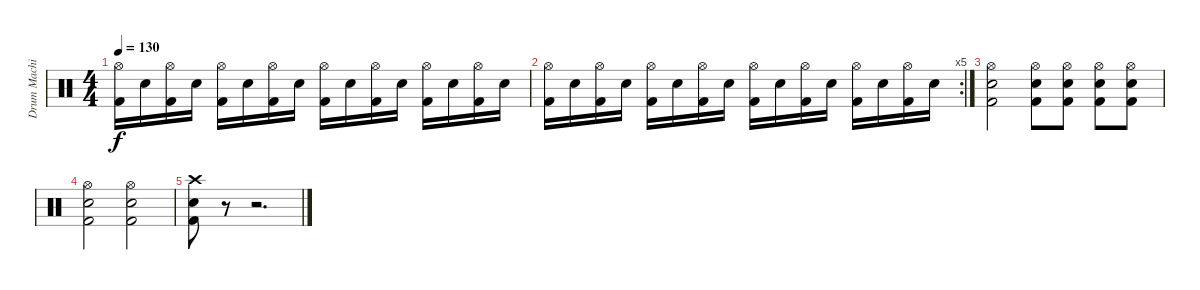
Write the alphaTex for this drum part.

\track ("Drum Machine" "Drum Machi") {instrument percussion}
\staff {score}
\articulation defaults
\ts (4 4)
\tempo 130
\clef neutral
\ks c
("Hi-Hat (open)" "Kick (hit) 2").16{dy f} "Snare (hit) 2".16 ("Hi-Hat (open)" "Kick (hit) 2").16 "Snare (hit) 2".16 ("Hi-Hat (open)" "Kick (hit) 2").16 "Snare (hit) 2".16 ("Hi-Hat (open)" "Kick (hit) 2").16 "Snare (hit) 2".16 ("Hi-Hat (open)" "Kick (hit) 2").16 "Snare (hit) 2".16 ("Hi-Hat (open)" "Kick (hit) 2").16 "Snare (hit) 2".16 ("Hi-Hat (open)" "Kick (hit) 2").16 "Snare (hit) 2".16 ("Hi-Hat (open)" "Kick (hit) 2").16 "Snare (hit) 2".16 |
\rc 5
("Hi-Hat (open)" "Kick (hit) 2").16 "Snare (hit) 2".16 ("Hi-Hat (open)" "Kick (hit) 2").16 "Snare (hit) 2".16 ("Hi-Hat (open)" "Kick (hit) 2").16 "Snare (hit) 2".16 ("Hi-Hat (open)" "Kick (hit) 2").16 "Snare (hit) 2".16 ("Hi-Hat (open)" "Kick (hit) 2").16 "Snare (hit) 2".16 ("Hi-Hat (open)" "Kick (hit) 2").16 "Snare (hit) 2".16 ("Hi-Hat (open)" "Kick (hit) 2").16 "Snare (hit) 2".16 ("Hi-Hat (open)" "Kick (hit) 2").16 "Snare (hit) 2".16 |
("Hi-Hat (open)" "Snare (hit) 2" "Kick (hit) 2").2 ("Hi-Hat (open)" "Snare (hit) 2" "Kick (hit) 2").8 ("Hi-Hat (open)" "Snare (hit) 2" "Kick (hit) 2").8 ("Hi-Hat (open)" "Snare (hit) 2" "Kick (hit) 2").8 ("Hi-Hat (open)" "Snare (hit) 2" "Kick (hit) 2").8 |
("Hi-Hat (open)" "Snare (hit) 2" "Kick (hit) 2").2 ("Hi-Hat (open)" "Snare (hit) 2" "Kick (hit) 2").2 |
("Crash high (hit)" "Snare (hit) 2" "Kick (hit) 2").8 r.8 r.2{d}
